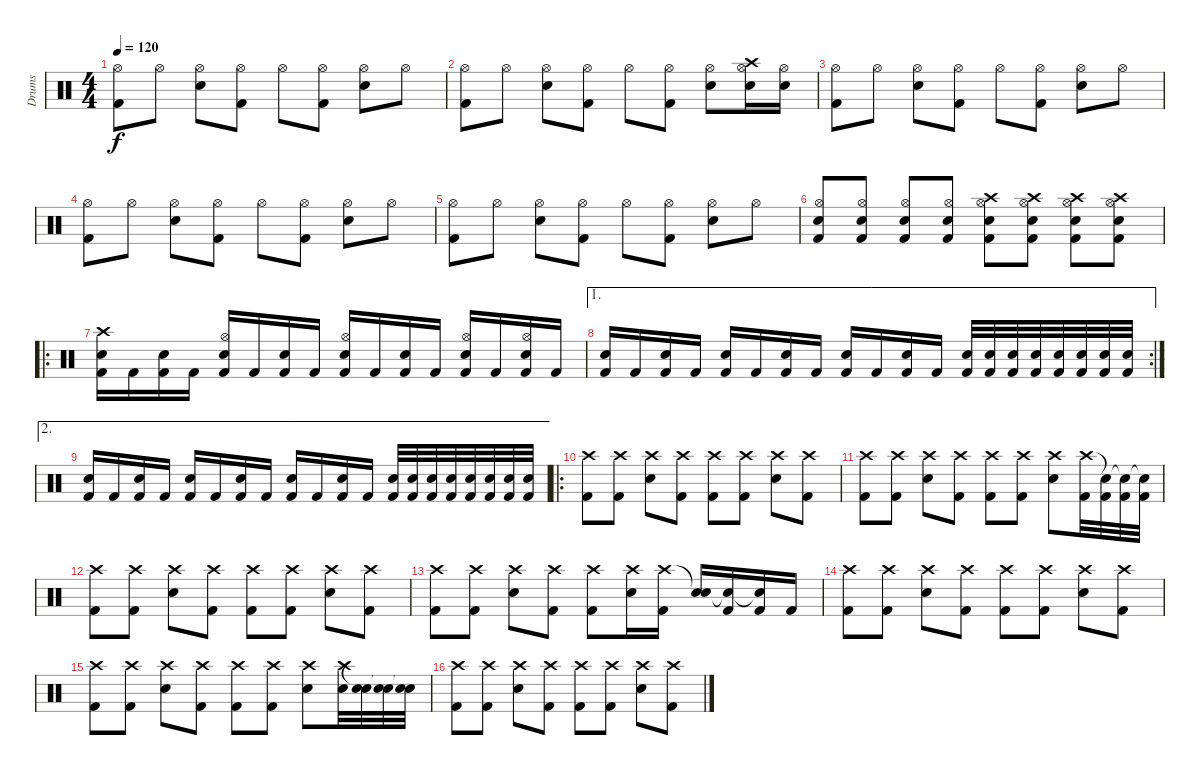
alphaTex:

\track ("Drums" "Drums") {instrument percussion}
\staff {score}
\articulation defaults
\ts (4 4)
\tempo 120
\clef neutral
\ks c
("Kick (hit) 2" "Hi-Hat (open)").8{dy f} "Hi-Hat (open)".8 ("Electric Snare (hit)" "Hi-Hat (open)").8 ("Kick (hit) 2" "Hi-Hat (open)").8 "Hi-Hat (open)".8 ("Kick (hit) 2" "Hi-Hat (open)").8 ("Electric Snare (hit)" "Hi-Hat (open)").8 "Hi-Hat (open)".8 |
("Kick (hit) 2" "Hi-Hat (open)").8 "Hi-Hat (open)".8 ("Electric Snare (hit)" "Hi-Hat (open)").8 ("Kick (hit) 2" "Hi-Hat (open)").8 "Hi-Hat (open)".8 ("Kick (hit) 2" "Hi-Hat (open)").8 ("Electric Snare (hit)" "Hi-Hat (open)").8 ("Crash high (hit)" "Electric Snare (hit)" "Hi-Hat (open)").16 ("Electric Snare (hit)" "Hi-Hat (open)").16 |
("Kick (hit) 2" "Hi-Hat (open)").8 "Hi-Hat (open)".8 ("Electric Snare (hit)" "Hi-Hat (open)").8 ("Kick (hit) 2" "Hi-Hat (open)").8 "Hi-Hat (open)".8 ("Kick (hit) 2" "Hi-Hat (open)").8 ("Electric Snare (hit)" "Hi-Hat (open)").8 "Hi-Hat (open)".8 |
("Kick (hit) 2" "Hi-Hat (open)").8 "Hi-Hat (open)".8 ("Electric Snare (hit)" "Hi-Hat (open)").8 ("Kick (hit) 2" "Hi-Hat (open)").8 "Hi-Hat (open)".8 ("Kick (hit) 2" "Hi-Hat (open)").8 ("Electric Snare (hit)" "Hi-Hat (open)").8 "Hi-Hat (open)".8 |
("Kick (hit) 2" "Hi-Hat (open)").8 "Hi-Hat (open)".8 ("Electric Snare (hit)" "Hi-Hat (open)").8 ("Kick (hit) 2" "Hi-Hat (open)").8 "Hi-Hat (open)".8 ("Kick (hit) 2" "Hi-Hat (open)").8 ("Electric Snare (hit)" "Hi-Hat (open)").8 "Hi-Hat (open)".8 |
("Electric Snare (hit)" "Kick (hit) 2" "Hi-Hat (open)").8 ("Electric Snare (hit)" "Kick (hit) 2" "Hi-Hat (open)").8 ("Electric Snare (hit)" "Kick (hit) 2" "Hi-Hat (open)").8 ("Electric Snare (hit)" "Kick (hit) 2" "Hi-Hat (open)").8 ("Electric Snare (hit)" "Kick (hit) 2" "Crash high (hit)" "Hi-Hat (open)").8 ("Electric Snare (hit)" "Kick (hit) 2" "Crash high (hit)" "Hi-Hat (open)").8 ("Electric Snare (hit)" "Kick (hit) 2" "Crash high (hit)" "Hi-Hat (open)").8 ("Electric Snare (hit)" "Kick (hit) 2" "Crash high (hit)" "Hi-Hat (open)").8 |
\ro
("Crash high (hit)" "Electric Snare (hit)" "Kick (hit) 2").16 "Kick (hit) 2".16 ("Electric Snare (hit)" "Kick (hit) 2").16 "Kick (hit) 2".16 ("Hi-Hat (open)" "Electric Snare (hit)" "Kick (hit) 2").16 "Kick (hit) 2".16 ("Electric Snare (hit)" "Kick (hit) 2").16 "Kick (hit) 2".16 ("Hi-Hat (open)" "Electric Snare (hit)" "Kick (hit) 2").16 "Kick (hit) 2".16 ("Electric Snare (hit)" "Kick (hit) 2").16 "Kick (hit) 2".16 ("Hi-Hat (open)" "Electric Snare (hit)" "Kick (hit) 2").16 "Kick (hit) 2".16 ("Hi-Hat (open)" "Electric Snare (hit)" "Kick (hit) 2").16 "Kick (hit) 2".16 |
\ae 1
\rc 2
("Electric Snare (hit)" "Kick (hit) 2").16 "Kick (hit) 2".16 ("Electric Snare (hit)" "Kick (hit) 2").16 "Kick (hit) 2".16 ("Electric Snare (hit)" "Kick (hit) 2").16 "Kick (hit) 2".16 ("Electric Snare (hit)" "Kick (hit) 2").16 "Kick (hit) 2".16 ("Electric Snare (hit)" "Kick (hit) 2").16 "Kick (hit) 2".16 ("Electric Snare (hit)" "Kick (hit) 2").16 "Kick (hit) 2".16 ("Electric Snare (hit)" "Kick (hit) 2").32 ("Electric Snare (hit)" "Kick (hit) 2").32 ("Electric Snare (hit)" "Kick (hit) 2").32 ("Electric Snare (hit)" "Kick (hit) 2").32 ("Electric Snare (hit)" "Kick (hit) 2").32 ("Electric Snare (hit)" "Kick (hit) 2").32 ("Electric Snare (hit)" "Kick (hit) 2").32 ("Electric Snare (hit)" "Kick (hit) 2").32 |
\ae 2
("Electric Snare (hit)" "Kick (hit) 2").16 "Kick (hit) 2".16 ("Electric Snare (hit)" "Kick (hit) 2").16 "Kick (hit) 2".16 ("Electric Snare (hit)" "Kick (hit) 2").16 "Kick (hit) 2".16 ("Electric Snare (hit)" "Kick (hit) 2").16 "Kick (hit) 2".16 ("Electric Snare (hit)" "Kick (hit) 2").16 "Kick (hit) 2".16 ("Electric Snare (hit)" "Kick (hit) 2").16 "Kick (hit) 2".16 ("Electric Snare (hit)" "Kick (hit) 2").32 ("Electric Snare (hit)" "Kick (hit) 2").32 ("Electric Snare (hit)" "Kick (hit) 2").32 ("Electric Snare (hit)" "Kick (hit) 2").32 ("Electric Snare (hit)" "Kick (hit) 2").32 ("Electric Snare (hit)" "Kick (hit) 2").32 ("Electric Snare (hit)" "Kick (hit) 2").32 ("Electric Snare (hit)" "Kick (hit) 2").32 |
\ro
("Crash high (hit)" "Kick (hit) 2").8 ("Crash high (hit)" "Kick (hit) 2").8 ("Crash high (hit)" "Electric Snare (hit)").8 ("Crash high (hit)" "Kick (hit) 2").8 ("Crash high (hit)" "Kick (hit) 2").8 ("Crash high (hit)" "Kick (hit) 2").8 ("Crash high (hit)" "Electric Snare (hit)").8 ("Crash high (hit)" "Kick (hit) 2").8 |
("Crash high (hit)" "Kick (hit) 2").8 ("Crash high (hit)" "Kick (hit) 2").8 ("Crash high (hit)" "Electric Snare (hit)").8 ("Crash high (hit)" "Kick (hit) 2").8 ("Crash high (hit)" "Kick (hit) 2").8 ("Crash high (hit)" "Kick (hit) 2").8 ("Crash high (hit)" "Electric Snare (hit)").8 ("Crash high (hit)" "Kick (hit) 2").32 ("Snare (hit)"{t} "Kick (hit) 2").32 ("Snare (hit)"{t} "Kick (hit) 2").32 ("Snare (hit)"{t} "Kick (hit) 2").32 |
("Crash high (hit)" "Kick (hit) 2").8 ("Crash high (hit)" "Kick (hit) 2").8 ("Crash high (hit)" "Electric Snare (hit)").8 ("Crash high (hit)" "Kick (hit) 2").8 ("Crash high (hit)" "Kick (hit) 2").8 ("Crash high (hit)" "Kick (hit) 2").8 ("Crash high (hit)" "Electric Snare (hit)").8 ("Crash high (hit)" "Kick (hit) 2").8 |
("Crash high (hit)" "Kick (hit) 2").8 ("Crash high (hit)" "Kick (hit) 2").8 ("Crash high (hit)" "Electric Snare (hit)").8 ("Crash high (hit)" "Kick (hit) 2").8 ("Crash high (hit)" "Kick (hit) 2").8 ("Crash high (hit)" "Electric Snare (hit)").16 ("Crash high (hit)" "Kick (hit) 2").16 ("Snare (hit)"{t} "Electric Snare (hit)").16 ("Snare (hit)"{t} "Kick (hit) 2").16 ("Snare (hit)"{t} "Kick (hit) 2").16 "Kick (hit) 2".16 |
("Crash high (hit)" "Kick (hit) 2").8 ("Crash high (hit)" "Kick (hit) 2").8 ("Crash high (hit)" "Electric Snare (hit)").8 ("Crash high (hit)" "Kick (hit) 2").8 ("Crash high (hit)" "Kick (hit) 2").8 ("Crash high (hit)" "Kick (hit) 2").8 ("Crash high (hit)" "Electric Snare (hit)").8 ("Crash high (hit)" "Kick (hit) 2").8 |
("Crash high (hit)" "Kick (hit) 2").8 ("Crash high (hit)" "Kick (hit) 2").8 ("Crash high (hit)" "Electric Snare (hit)").8 ("Crash high (hit)" "Kick (hit) 2").8 ("Crash high (hit)" "Kick (hit) 2").8 ("Crash high (hit)" "Kick (hit) 2").8 ("Crash high (hit)" "Electric Snare (hit)").8 ("Crash high (hit)" "Electric Snare (hit)").32 ("Snare (hit)"{t} "Electric Snare (hit)").32 ("Snare (hit)"{t} "Electric Snare (hit)").32 ("Snare (hit)"{t} "Electric Snare (hit)").32 |
("Crash high (hit)" "Kick (hit) 2").8 ("Crash high (hit)" "Kick (hit) 2").8 ("Crash high (hit)" "Electric Snare (hit)").8 ("Crash high (hit)" "Kick (hit) 2").8 ("Crash high (hit)" "Kick (hit) 2").8 ("Crash high (hit)" "Kick (hit) 2").8 ("Crash high (hit)" "Electric Snare (hit)").8 ("Crash high (hit)" "Kick (hit) 2").8
